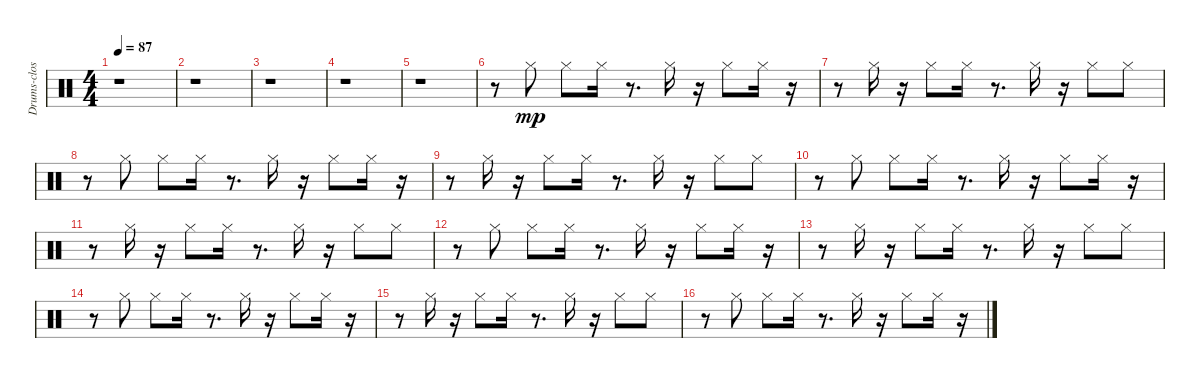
\track ("Drums-closed hi-hat" "Drums-clos") {instrument percussion}
\staff {score}
\articulation defaults
\ts (4 4)
\tempo 87
\clef neutral
\ks c
r.1{dy mp} |
r.1 |
r.1 |
r.1 |
r.1 |
r.8 "Hi-Hat (closed)".8 "Hi-Hat (closed)".8 "Hi-Hat (closed)".16 r.8{d} "Hi-Hat (closed)".16 r.16 "Hi-Hat (closed)".8 "Hi-Hat (closed)".16 r.16 |
r.8 "Hi-Hat (closed)".16 r.16 "Hi-Hat (closed)".8 "Hi-Hat (closed)".16 r.8{d} "Hi-Hat (closed)".16 r.16 "Hi-Hat (closed)".8 "Hi-Hat (closed)".8 |
r.8 "Hi-Hat (closed)".8 "Hi-Hat (closed)".8 "Hi-Hat (closed)".16 r.8{d} "Hi-Hat (closed)".16 r.16 "Hi-Hat (closed)".8 "Hi-Hat (closed)".16 r.16 |
r.8 "Hi-Hat (closed)".16 r.16 "Hi-Hat (closed)".8 "Hi-Hat (closed)".16 r.8{d} "Hi-Hat (closed)".16 r.16 "Hi-Hat (closed)".8 "Hi-Hat (closed)".8 |
r.8 "Hi-Hat (closed)".8 "Hi-Hat (closed)".8 "Hi-Hat (closed)".16 r.8{d} "Hi-Hat (closed)".16 r.16 "Hi-Hat (closed)".8 "Hi-Hat (closed)".16 r.16 |
r.8 "Hi-Hat (closed)".16 r.16 "Hi-Hat (closed)".8 "Hi-Hat (closed)".16 r.8{d} "Hi-Hat (closed)".16 r.16 "Hi-Hat (closed)".8 "Hi-Hat (closed)".8 |
r.8 "Hi-Hat (closed)".8 "Hi-Hat (closed)".8 "Hi-Hat (closed)".16 r.8{d} "Hi-Hat (closed)".16 r.16 "Hi-Hat (closed)".8 "Hi-Hat (closed)".16 r.16 |
r.8 "Hi-Hat (closed)".16 r.16 "Hi-Hat (closed)".8 "Hi-Hat (closed)".16 r.8{d} "Hi-Hat (closed)".16 r.16 "Hi-Hat (closed)".8 "Hi-Hat (closed)".8 |
r.8 "Hi-Hat (closed)".8 "Hi-Hat (closed)".8 "Hi-Hat (closed)".16 r.8{d} "Hi-Hat (closed)".16 r.16 "Hi-Hat (closed)".8 "Hi-Hat (closed)".16 r.16 |
r.8 "Hi-Hat (closed)".16 r.16 "Hi-Hat (closed)".8 "Hi-Hat (closed)".16 r.8{d} "Hi-Hat (closed)".16 r.16 "Hi-Hat (closed)".8 "Hi-Hat (closed)".8 |
r.8 "Hi-Hat (closed)".8 "Hi-Hat (closed)".8 "Hi-Hat (closed)".16 r.8{d} "Hi-Hat (closed)".16 r.16 "Hi-Hat (closed)".8 "Hi-Hat (closed)".16 r.16
